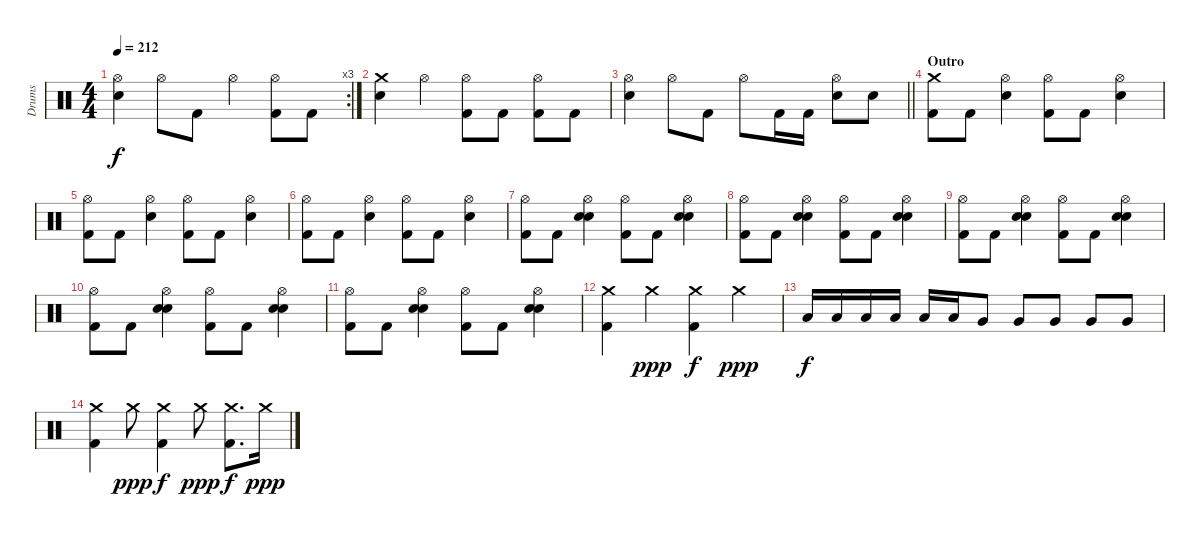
\track ("Drums" "Drums") {instrument percussion}
\staff {score}
\articulation defaults
\rc 3
\ts (4 4)
\tempo 212
\clef neutral
\ks c
("Hi-Hat (open)" "Electric Snare (hit)").4{dy f} "Hi-Hat (open)".8 "Kick (hit) 2".8 "Hi-Hat (open)".4 ("Hi-Hat (open)" "Kick (hit) 2").8 "Kick (hit) 2".8 |
("Crash medium (hit)" "Electric Snare (hit)").4 "Hi-Hat (open)".4 ("Hi-Hat (open)" "Kick (hit) 2").8 "Kick (hit) 2".8 ("Hi-Hat (open)" "Kick (hit) 2").8 "Kick (hit) 2".8 |
\barLineRight lightlight
("Hi-Hat (open)" "Electric Snare (hit)").4 "Hi-Hat (open)".8 "Kick (hit) 2".8 "Hi-Hat (open)".8 "Kick (hit) 2".16 "Kick (hit) 2".16 ("Hi-Hat (open)" "Electric Snare (hit)").8 "Electric Snare (hit)".8 |
\section ("" "Outro")
("Crash medium (hit)" "Kick (hit) 2").8 "Kick (hit) 2".8 ("Hi-Hat (open)" "Electric Snare (hit)").4 ("Hi-Hat (open)" "Kick (hit) 2").8 "Kick (hit) 2".8 ("Hi-Hat (open)" "Electric Snare (hit)").4 |
("Hi-Hat (open)" "Kick (hit) 2").8 "Kick (hit) 2".8 ("Hi-Hat (open)" "Electric Snare (hit)").4 ("Hi-Hat (open)" "Kick (hit) 2").8 "Kick (hit) 2".8 ("Hi-Hat (open)" "Electric Snare (hit)").4 |
("Hi-Hat (open)" "Kick (hit) 2").8 "Kick (hit) 2".8 ("Hi-Hat (open)" "Electric Snare (hit)").4 ("Hi-Hat (open)" "Kick (hit) 2").8 "Kick (hit) 2".8 ("Hi-Hat (open)" "Electric Snare (hit)").4 |
("Hi-Hat (open)" "Kick (hit) 2").8 "Kick (hit) 2".8 ("Hi-Hat (open)" "Electric Snare (hit)" "Electric Snare (hit)").4 ("Hi-Hat (open)" "Kick (hit) 2").8 "Kick (hit) 2".8 ("Hi-Hat (open)" "Electric Snare (hit)" "Electric Snare (hit)").4 |
("Hi-Hat (open)" "Kick (hit) 2").8 "Kick (hit) 2".8 ("Hi-Hat (open)" "Electric Snare (hit)" "Electric Snare (hit)").4 ("Hi-Hat (open)" "Kick (hit) 2").8 "Kick (hit) 2".8 ("Hi-Hat (open)" "Electric Snare (hit)" "Electric Snare (hit)").4 |
("Hi-Hat (open)" "Kick (hit) 2").8 "Kick (hit) 2".8 ("Hi-Hat (open)" "Electric Snare (hit)" "Electric Snare (hit)").4 ("Hi-Hat (open)" "Kick (hit) 2").8 "Kick (hit) 2".8 ("Hi-Hat (open)" "Electric Snare (hit)" "Electric Snare (hit)").4 |
("Hi-Hat (open)" "Kick (hit) 2").8 "Kick (hit) 2".8 ("Hi-Hat (open)" "Electric Snare (hit)" "Electric Snare (hit)").4 ("Hi-Hat (open)" "Kick (hit) 2").8 "Kick (hit) 2".8 ("Hi-Hat (open)" "Electric Snare (hit)" "Electric Snare (hit)").4 |
("Hi-Hat (open)" "Kick (hit) 2").8 "Kick (hit) 2".8 ("Hi-Hat (open)" "Electric Snare (hit)" "Electric Snare (hit)").4 ("Hi-Hat (open)" "Kick (hit) 2").8 "Kick (hit) 2".8 ("Hi-Hat (open)" "Electric Snare (hit)" "Electric Snare (hit)").4 |
("Crash medium (hit)" "Kick (hit) 2").4 "Crash medium (hit)".4{dy ppp} ("Crash medium (hit)" "Kick (hit) 2").4{dy f} "Crash medium (hit)".4{dy ppp} |
"Low Tom (hit)".16{dy f} "Low Tom (hit)".16 "Low Tom (hit)".16 "Low Tom (hit)".16 "Low Tom (hit)".16 "Low Tom (hit)".16 "Very Low Tom (hit)".8 "Very Low Tom (hit)".8 "Very Low Tom (hit)".8 "Very Low Tom (hit)".8 "Very Low Tom (hit)".8 |
("Crash medium (hit)" "Kick (hit) 2").4 "Crash medium (hit)".8{dy ppp} ("Crash medium (hit)" "Kick (hit) 2").4{dy f} "Crash medium (hit)".8{dy ppp} ("Crash medium (hit)" "Kick (hit) 2").8{d dy f} "Crash medium (hit)".16{dy ppp}
